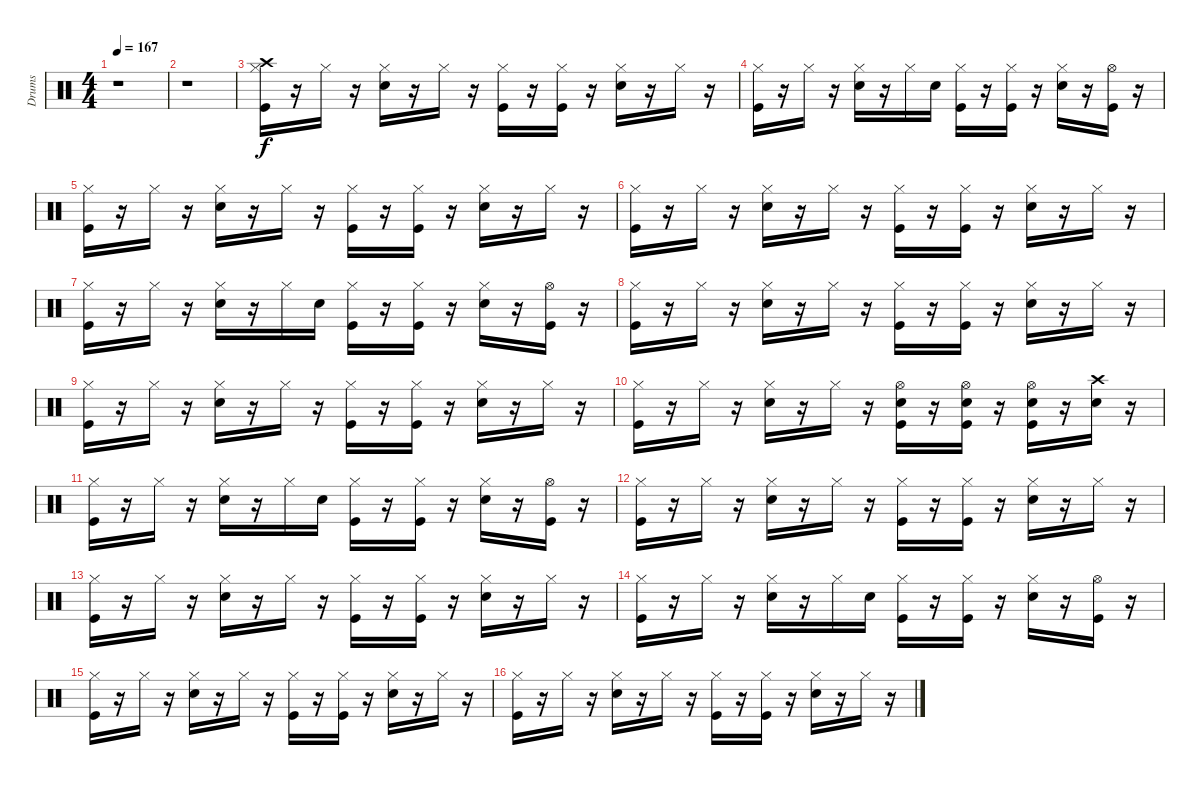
\track ("Drums" "Drums") {instrument percussion}
\staff {score}
\articulation defaults
\ts (4 4)
\tempo 167
\clef neutral
\ks c
r.1{dy f} |
r.1 |
("Kick (hit)" "Hi-Hat (closed)" "Crash high (hit)").16 r.16 "Hi-Hat (closed)".16 r.16 ("Snare (hit) 2" "Hi-Hat (closed)").16 r.16 "Hi-Hat (closed)".16 r.16 ("Kick (hit)" "Hi-Hat (closed)").16 r.16 ("Kick (hit)" "Hi-Hat (closed)").16 r.16 ("Snare (hit) 2" "Hi-Hat (closed)").16 r.16 "Hi-Hat (closed)".16 r.16 |
("Kick (hit)" "Hi-Hat (closed)").16 r.16 "Hi-Hat (closed)".16 r.16 ("Snare (hit) 2" "Hi-Hat (closed)").16 r.16 "Hi-Hat (closed)".16 "Snare (hit) 2".16 ("Kick (hit)" "Hi-Hat (closed)").16 r.16 ("Kick (hit)" "Hi-Hat (closed)").16 r.16 ("Snare (hit) 2" "Hi-Hat (closed)").16 r.16 ("Kick (hit)" "Hi-Hat (open)").16 r.16 |
("Kick (hit)" "Hi-Hat (closed)").16 r.16 "Hi-Hat (closed)".16 r.16 ("Snare (hit) 2" "Hi-Hat (closed)").16 r.16 "Hi-Hat (closed)".16 r.16 ("Kick (hit)" "Hi-Hat (closed)").16 r.16 ("Kick (hit)" "Hi-Hat (closed)").16 r.16 ("Snare (hit) 2" "Hi-Hat (closed)").16 r.16 "Hi-Hat (closed)".16 r.16 |
("Kick (hit)" "Hi-Hat (closed)").16 r.16 "Hi-Hat (closed)".16 r.16 ("Snare (hit) 2" "Hi-Hat (closed)").16 r.16 "Hi-Hat (closed)".16 r.16 ("Kick (hit)" "Hi-Hat (closed)").16 r.16 ("Kick (hit)" "Hi-Hat (closed)").16 r.16 ("Snare (hit) 2" "Hi-Hat (closed)").16 r.16 "Hi-Hat (closed)".16 r.16 |
("Kick (hit)" "Hi-Hat (closed)").16 r.16 "Hi-Hat (closed)".16 r.16 ("Snare (hit) 2" "Hi-Hat (closed)").16 r.16 "Hi-Hat (closed)".16 "Snare (hit) 2".16 ("Kick (hit)" "Hi-Hat (closed)").16 r.16 ("Kick (hit)" "Hi-Hat (closed)").16 r.16 ("Snare (hit) 2" "Hi-Hat (closed)").16 r.16 ("Kick (hit)" "Hi-Hat (open)").16 r.16 |
("Kick (hit)" "Hi-Hat (closed)").16 r.16 "Hi-Hat (closed)".16 r.16 ("Snare (hit) 2" "Hi-Hat (closed)").16 r.16 "Hi-Hat (closed)".16 r.16 ("Kick (hit)" "Hi-Hat (closed)").16 r.16 ("Kick (hit)" "Hi-Hat (closed)").16 r.16 ("Snare (hit) 2" "Hi-Hat (closed)").16 r.16 "Hi-Hat (closed)".16 r.16 |
("Kick (hit)" "Hi-Hat (closed)").16 r.16 "Hi-Hat (closed)".16 r.16 ("Snare (hit) 2" "Hi-Hat (closed)").16 r.16 "Hi-Hat (closed)".16 r.16 ("Kick (hit)" "Hi-Hat (closed)").16 r.16 ("Kick (hit)" "Hi-Hat (closed)").16 r.16 ("Snare (hit) 2" "Hi-Hat (closed)").16 r.16 "Hi-Hat (closed)".16 r.16 |
("Kick (hit)" "Hi-Hat (closed)").16 r.16 "Hi-Hat (closed)".16 r.16 ("Snare (hit) 2" "Hi-Hat (closed)").16 r.16 "Hi-Hat (closed)".16 r.16 ("Kick (hit)" "Snare (hit) 2" "Hi-Hat (open)").16 r.16 ("Kick (hit)" "Snare (hit) 2" "Hi-Hat (open)").16 r.16 ("Kick (hit)" "Snare (hit) 2" "Hi-Hat (open)").16 r.16 ("Snare (hit) 2" "Crash high (hit)").16 r.16 |
("Kick (hit)" "Hi-Hat (closed)").16 r.16 "Hi-Hat (closed)".16 r.16 ("Snare (hit) 2" "Hi-Hat (closed)").16 r.16 "Hi-Hat (closed)".16 "Snare (hit) 2".16 ("Kick (hit)" "Hi-Hat (closed)").16 r.16 ("Kick (hit)" "Hi-Hat (closed)").16 r.16 ("Snare (hit) 2" "Hi-Hat (closed)").16 r.16 ("Kick (hit)" "Hi-Hat (open)").16 r.16 |
("Kick (hit)" "Hi-Hat (closed)").16 r.16 "Hi-Hat (closed)".16 r.16 ("Snare (hit) 2" "Hi-Hat (closed)").16 r.16 "Hi-Hat (closed)".16 r.16 ("Kick (hit)" "Hi-Hat (closed)").16 r.16 ("Kick (hit)" "Hi-Hat (closed)").16 r.16 ("Snare (hit) 2" "Hi-Hat (closed)").16 r.16 "Hi-Hat (closed)".16 r.16 |
("Kick (hit)" "Hi-Hat (closed)").16 r.16 "Hi-Hat (closed)".16 r.16 ("Snare (hit) 2" "Hi-Hat (closed)").16 r.16 "Hi-Hat (closed)".16 r.16 ("Kick (hit)" "Hi-Hat (closed)").16 r.16 ("Kick (hit)" "Hi-Hat (closed)").16 r.16 ("Snare (hit) 2" "Hi-Hat (closed)").16 r.16 "Hi-Hat (closed)".16 r.16 |
("Kick (hit)" "Hi-Hat (closed)").16 r.16 "Hi-Hat (closed)".16 r.16 ("Snare (hit) 2" "Hi-Hat (closed)").16 r.16 "Hi-Hat (closed)".16 "Snare (hit) 2".16 ("Kick (hit)" "Hi-Hat (closed)").16 r.16 ("Kick (hit)" "Hi-Hat (closed)").16 r.16 ("Snare (hit) 2" "Hi-Hat (closed)").16 r.16 ("Kick (hit)" "Hi-Hat (open)").16 r.16 |
("Kick (hit)" "Hi-Hat (closed)").16 r.16 "Hi-Hat (closed)".16 r.16 ("Snare (hit) 2" "Hi-Hat (closed)").16 r.16 "Hi-Hat (closed)".16 r.16 ("Kick (hit)" "Hi-Hat (closed)").16 r.16 ("Kick (hit)" "Hi-Hat (closed)").16 r.16 ("Snare (hit) 2" "Hi-Hat (closed)").16 r.16 "Hi-Hat (closed)".16 r.16 |
("Kick (hit)" "Hi-Hat (closed)").16 r.16 "Hi-Hat (closed)".16 r.16 ("Snare (hit) 2" "Hi-Hat (closed)").16 r.16 "Hi-Hat (closed)".16 r.16 ("Kick (hit)" "Hi-Hat (closed)").16 r.16 ("Kick (hit)" "Hi-Hat (closed)").16 r.16 ("Snare (hit) 2" "Hi-Hat (closed)").16 r.16 "Hi-Hat (closed)".16 r.16
